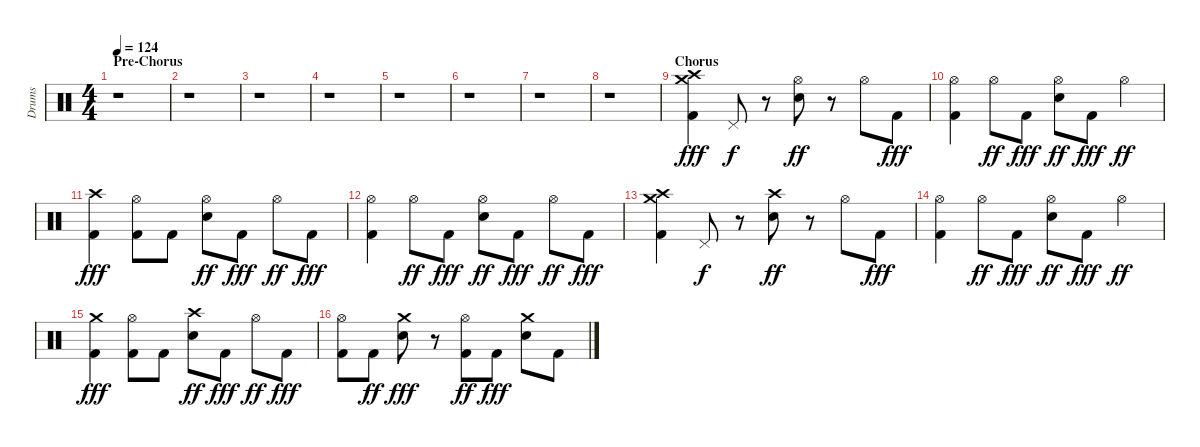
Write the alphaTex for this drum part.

\track ("Drums" "Drums") {instrument percussion}
\staff {score}
\articulation defaults
\ts (4 4)
\section ("" "Pre-Chorus")
\tempo 124
\clef neutral
\ks c
r.1{dy fff} |
r.1 |
r.1 |
r.1 |
r.1 |
r.1 |
r.1 |
r.1 |
\section ("" "Chorus")
("Crash medium (hit)" "Crash high (hit)" "Kick (hit) 2").4 "Pedal Hi-Hat (hit)".8{dy f} r.8 ("Hi-Hat (open)" "Snare (hit) 2").8{dy ff} r.8 "Hi-Hat (open)".8 "Kick (hit) 2".8{dy fff} |
("Hi-Hat (open)" "Kick (hit) 2").4 "Hi-Hat (open)".8{dy ff} "Kick (hit) 2".8{dy fff} ("Hi-Hat (open)" "Snare (hit) 2").8{dy ff} "Kick (hit) 2".8{dy fff} "Hi-Hat (open)".4{dy ff} |
("Crash high (hit)" "Kick (hit) 2").4{dy fff} ("Hi-Hat (open)" "Kick (hit) 2").8 "Kick (hit) 2".8 ("Hi-Hat (open)" "Snare (hit) 2").8{dy ff} "Kick (hit) 2".8{dy fff} "Hi-Hat (open)".8{dy ff} "Kick (hit) 2".8{dy fff} |
("Hi-Hat (open)" "Kick (hit) 2").4 "Hi-Hat (open)".8{dy ff} "Kick (hit) 2".8{dy fff} ("Hi-Hat (open)" "Snare (hit) 2").8{dy ff} "Kick (hit) 2".8{dy fff} "Hi-Hat (open)".8{dy ff} "Kick (hit) 2".8{dy fff} |
("Crash medium (hit)" "Crash high (hit)" "Kick (hit) 2").4 "Pedal Hi-Hat (hit)".8{dy f} r.8 ("Crash high (hit)" "Snare (hit) 2").8{dy ff} r.8 "Hi-Hat (open)".8 "Kick (hit) 2".8{dy fff} |
("Hi-Hat (open)" "Kick (hit) 2").4 "Hi-Hat (open)".8{dy ff} "Kick (hit) 2".8{dy fff} ("Hi-Hat (open)" "Snare (hit) 2").8{dy ff} "Kick (hit) 2".8{dy fff} "Hi-Hat (open)".4{dy ff} |
("Crash medium (hit)" "Kick (hit) 2").4{dy fff} ("Hi-Hat (open)" "Kick (hit) 2").8 "Kick (hit) 2".8 ("Crash high (hit)" "Snare (hit) 2").8{dy ff} "Kick (hit) 2".8{dy fff} "Hi-Hat (open)".8{dy ff} "Kick (hit) 2".8{dy fff} |
("Hi-Hat (open)" "Kick (hit) 2").8 "Kick (hit) 2".8{dy ff} ("Crash medium (hit)" "Snare (hit) 2").8{dy fff} r.8 ("Hi-Hat (open)" "Kick (hit) 2").8{dy ff} "Kick (hit) 2".8{dy fff} ("Crash medium (hit)" "Snare (hit) 2").8 "Kick (hit) 2".8
